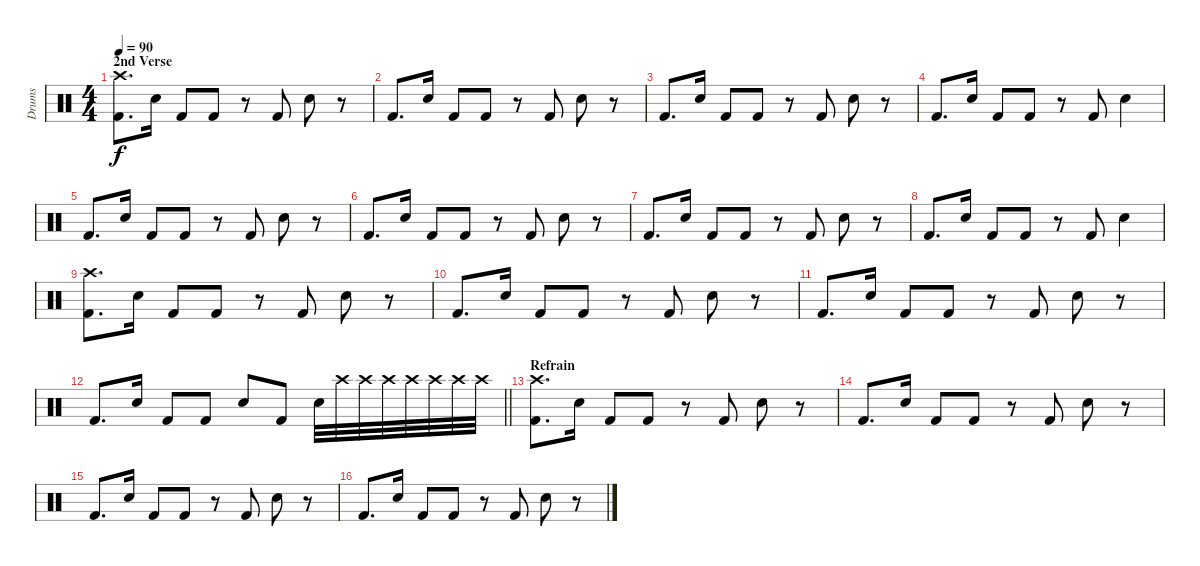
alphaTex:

\track ("Drums" "Drums") {instrument percussion}
\staff {score}
\articulation defaults
\ts (4 4)
\section ("" "2nd Verse")
\tempo 90
\clef neutral
\ks c
("Kick (hit) 2" "Crash high (hit)").8{d dy f} "Hand Clap (hit)".16 "Kick (hit) 2".8 "Kick (hit) 2".8 r.8 "Kick (hit) 2".8 "Hand Clap (hit)".8 r.8 |
"Kick (hit) 2".8{d} "Hand Clap (hit)".16 "Kick (hit) 2".8 "Kick (hit) 2".8 r.8 "Kick (hit) 2".8 "Hand Clap (hit)".8 r.8 |
"Kick (hit) 2".8{d} "Hand Clap (hit)".16 "Kick (hit) 2".8 "Kick (hit) 2".8 r.8 "Kick (hit) 2".8 "Hand Clap (hit)".8 r.8 |
"Kick (hit) 2".8{d} "Hand Clap (hit)".16 "Kick (hit) 2".8 "Kick (hit) 2".8 r.8 "Kick (hit) 2".8 "Hand Clap (hit)".4 |
"Kick (hit) 2".8{d} "Hand Clap (hit)".16 "Kick (hit) 2".8 "Kick (hit) 2".8 r.8 "Kick (hit) 2".8 "Hand Clap (hit)".8 r.8 |
"Kick (hit) 2".8{d} "Hand Clap (hit)".16 "Kick (hit) 2".8 "Kick (hit) 2".8 r.8 "Kick (hit) 2".8 "Hand Clap (hit)".8 r.8 |
"Kick (hit) 2".8{d} "Hand Clap (hit)".16 "Kick (hit) 2".8 "Kick (hit) 2".8 r.8 "Kick (hit) 2".8 "Hand Clap (hit)".8 r.8 |
"Kick (hit) 2".8{d} "Hand Clap (hit)".16 "Kick (hit) 2".8 "Kick (hit) 2".8 r.8 "Kick (hit) 2".8 "Hand Clap (hit)".4 |
("Kick (hit) 2" "Crash high (hit)").8{d} "Hand Clap (hit)".16 "Kick (hit) 2".8 "Kick (hit) 2".8 r.8 "Kick (hit) 2".8 "Hand Clap (hit)".8 r.8 |
"Kick (hit) 2".8{d} "Hand Clap (hit)".16 "Kick (hit) 2".8 "Kick (hit) 2".8 r.8 "Kick (hit) 2".8 "Hand Clap (hit)".8 r.8 |
"Kick (hit) 2".8{d} "Hand Clap (hit)".16 "Kick (hit) 2".8 "Kick (hit) 2".8 r.8 "Kick (hit) 2".8 "Hand Clap (hit)".8 r.8 |
\barLineRight lightlight "Kick (hit) 2".8{d} "Hand Clap (hit)".16 "Kick (hit) 2".8 "Kick (hit) 2".8 "Hand Clap (hit)".8 "Kick (hit) 2".8 "Hand Clap (hit)".32 "Crash high (hit)".32{volume 6} "Crash high (hit)".32{volume 7} "Crash high (hit)".32{volume 8} "Crash high (hit)".32{volume 9} "Crash high (hit)".32{volume 10} "Crash high (hit)".32{volume 11} "Crash high (hit)".32{volume 12}
|
\section ("" "Refrain")
("Kick (hit) 2" "Crash high (hit)").8{d} "Hand Clap (hit)".16 "Kick (hit) 2".8 "Kick (hit) 2".8 r.8 "Kick (hit) 2".8 "Hand Clap (hit)".8 r.8 |
"Kick (hit) 2".8{d} "Hand Clap (hit)".16 "Kick (hit) 2".8 "Kick (hit) 2".8 r.8 "Kick (hit) 2".8 "Hand Clap (hit)".8 r.8 |
"Kick (hit) 2".8{d} "Hand Clap (hit)".16 "Kick (hit) 2".8 "Kick (hit) 2".8 r.8 "Kick (hit) 2".8 "Hand Clap (hit)".8 r.8 |
"Kick (hit) 2".8{d} "Hand Clap (hit)".16 "Kick (hit) 2".8 "Kick (hit) 2".8 r.8 "Kick (hit) 2".8 "Hand Clap (hit)".8 r.8
